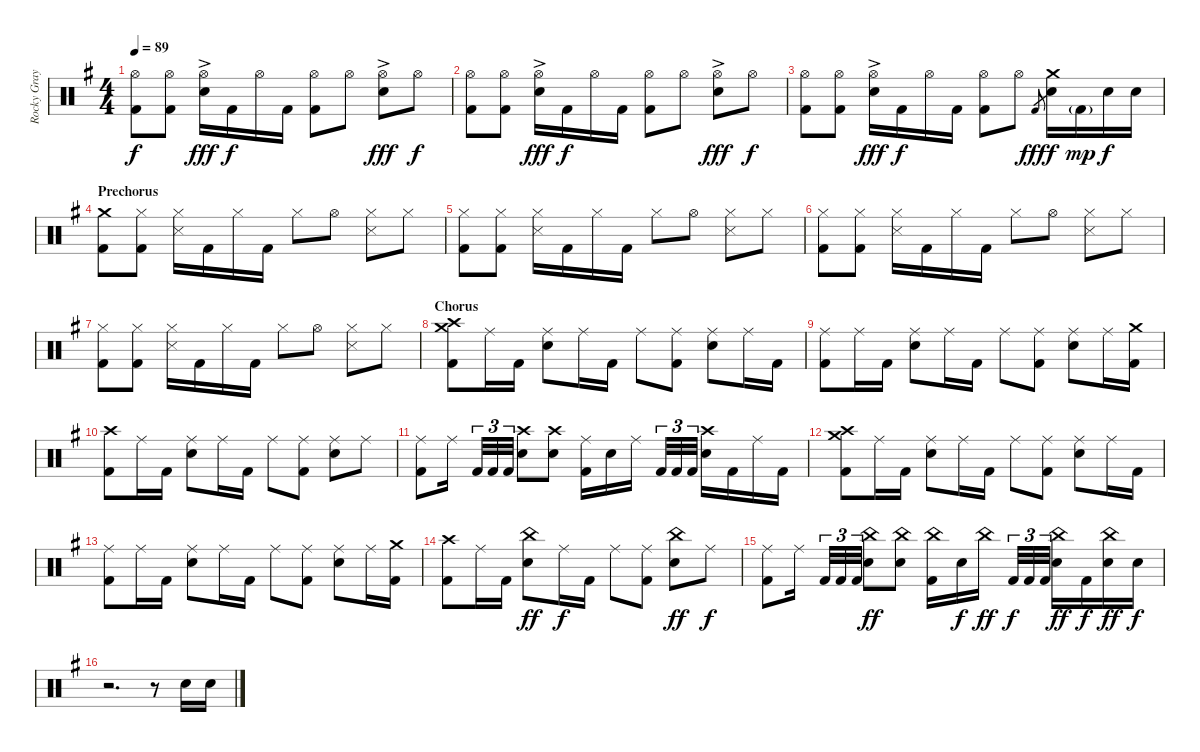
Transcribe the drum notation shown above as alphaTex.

\track ("Rocky Gray" "Rocky Gray") {instrument percussion}
\staff {score}
\articulation defaults
\ts (4 4)
\tempo 89
\clef neutral
\ks g
("Hi-Hat (open)" "Kick (hit) 2").8{dy f} ("Hi-Hat (open)" "Kick (hit) 2").8 ("Hi-Hat (open)" "Snare (hit) 2"{ac}).16{dy fff} "Kick (hit) 2".16{dy f} "Hi-Hat (open)".16 "Kick (hit) 2".16 ("Hi-Hat (open)" "Kick (hit) 2").8 "Hi-Hat (open)".8 ("Hi-Hat (open)" "Snare (hit) 2"{ac}).8{dy fff} "Hi-Hat (open)".8{dy f} |
("Hi-Hat (open)" "Kick (hit) 2").8 ("Hi-Hat (open)" "Kick (hit) 2").8 ("Hi-Hat (open)" "Snare (hit) 2"{ac}).16{dy fff} "Kick (hit) 2".16{dy f} "Hi-Hat (open)".16 "Kick (hit) 2".16 ("Hi-Hat (open)" "Kick (hit) 2").8 "Hi-Hat (open)".8 ("Hi-Hat (open)" "Snare (hit) 2"{ac}).8{dy fff} "Hi-Hat (open)".8{dy f} |
("Hi-Hat (open)" "Kick (hit) 2").8 ("Hi-Hat (open)" "Kick (hit) 2").8 ("Hi-Hat (open)" "Snare (hit) 2"{ac}).16{dy fff} "Kick (hit) 2".16{dy f} "Hi-Hat (open)".16 "Kick (hit) 2".16 ("Hi-Hat (open)" "Kick (hit) 2").8 "Hi-Hat (open)".8 "Kick (hit) 2".8{gr dy fff} ("Crash medium (hit)" "Snare (hit) 2").16{dy f} "Kick (hit) 2"{g}.16{dy mp} "Snare (hit) 2".16{dy f} "Snare (hit) 2".16 |
\section ("" "Prechorus")
("Crash medium (hit)" "Kick (hit) 2").8 ("Hi-Hat (closed)" "Kick (hit) 2").8 ("Hi-Hat (closed)" "Snare (side stick) 3").16 "Kick (hit) 2".16 "Hi-Hat (closed)".16 "Kick (hit) 2".16 "Hi-Hat (closed)".8 "Hi-Hat (open)".8 ("Hi-Hat (closed)" "Snare (side stick) 3").8 "Hi-Hat (closed)".8 |
("Hi-Hat (closed)" "Kick (hit) 2").8 ("Hi-Hat (closed)" "Kick (hit) 2").8 ("Hi-Hat (closed)" "Snare (side stick) 3").16 "Kick (hit) 2".16 "Hi-Hat (closed)".16 "Kick (hit) 2".16 "Hi-Hat (closed)".8 "Hi-Hat (open)".8 ("Hi-Hat (closed)" "Snare (side stick) 3").8 "Hi-Hat (closed)".8 |
("Hi-Hat (closed)" "Kick (hit) 2").8 ("Hi-Hat (closed)" "Kick (hit) 2").8 ("Hi-Hat (closed)" "Snare (side stick) 3").16 "Kick (hit) 2".16 "Hi-Hat (closed)".16 "Kick (hit) 2".16 "Hi-Hat (closed)".8 "Hi-Hat (open)".8 ("Hi-Hat (closed)" "Snare (side stick) 3").8 "Hi-Hat (closed)".8 |
("Hi-Hat (closed)" "Kick (hit) 2").8 ("Hi-Hat (closed)" "Kick (hit) 2").8 ("Hi-Hat (closed)" "Snare (side stick) 3").16 "Kick (hit) 2".16 "Hi-Hat (closed)".16 "Kick (hit) 2".16 "Hi-Hat (closed)".8 "Hi-Hat (open)".8 ("Hi-Hat (closed)" "Snare (side stick) 3").8 "Hi-Hat (closed)".8 |
\section ("" "Chorus")
("Crash high (hit)" "Crash medium (hit)" "Kick (hit) 2").8 "Ride (middle)".16 "Kick (hit) 2".16 ("Ride (middle)" "Snare (hit) 2").8 "Ride (middle)".16 "Kick (hit) 2".16 "Ride (middle)".8 ("Ride (middle)" "Kick (hit) 2").8 ("Ride (middle)" "Snare (hit) 2").8 "Ride (middle)".16 "Kick (hit) 2".16 |
("Ride (middle)" "Kick (hit) 2").8 "Ride (middle)".16 "Kick (hit) 2".16 ("Ride (middle)" "Snare (hit) 2").8 "Ride (middle)".16 "Kick (hit) 2".16 "Ride (middle)".8 ("Ride (middle)" "Kick (hit) 2").8 ("Ride (middle)" "Snare (hit) 2").8 "Ride (middle)".16 ("Crash medium (hit)" "Kick (hit) 2").16 |
("Crash high (hit)" "Kick (hit) 2").8 "Ride (middle)".16 "Kick (hit) 2".16 ("Ride (middle)" "Snare (hit) 2").8 "Ride (middle)".16 "Kick (hit) 2".16 "Ride (middle)".8 ("Ride (middle)" "Kick (hit) 2").8 ("Ride (middle)" "Snare (hit) 2").8 "Ride (middle)".8 |
("Ride (middle)" "Kick (hit) 2").8 "Ride (middle)".16 "Kick (hit) 2".32{tu (3 2)} "Kick (hit) 2".32{tu (3 2)} "Kick (hit) 2".32{tu (3 2)} ("Crash high (hit)" "Snare (hit) 2").8 ("Crash high (hit)" "Snare (hit) 2").8 ("Ride (middle)" "Kick (hit) 2").16 "Snare (hit) 2".16 "Ride (middle)".16 "Kick (hit) 2".32{tu (3 2)} "Kick (hit) 2".32{tu (3 2)} "Kick (hit) 2".32{tu (3 2)} ("Crash high (hit)" "Snare (hit) 2").16 "Kick (hit) 2".16 "Ride (middle)".16 "Kick (hit) 2".16 |
("Crash high (hit)" "Crash medium (hit)" "Kick (hit) 2").8 "Ride (middle)".16 "Kick (hit) 2".16 ("Ride (middle)" "Snare (hit) 2").8 "Ride (middle)".16 "Kick (hit) 2".16 "Ride (middle)".8 ("Ride (middle)" "Kick (hit) 2").8 ("Ride (middle)" "Snare (hit) 2").8 "Ride (middle)".16 "Kick (hit) 2".16 |
("Ride (middle)" "Kick (hit) 2").8 "Ride (middle)".16 "Kick (hit) 2".16 ("Ride (middle)" "Snare (hit) 2").8 "Ride (middle)".16 "Kick (hit) 2".16 "Ride (middle)".8 ("Ride (middle)" "Kick (hit) 2").8 ("Ride (middle)" "Snare (hit) 2").8 "Ride (middle)".16 ("Crash medium (hit)" "Kick (hit) 2").16 |
("Crash high (hit)" "Kick (hit) 2").8 "Ride (middle)".16 "Kick (hit) 2".16 ("China (hit)" "Snare (hit) 2").8{dy ff} "Ride (middle)".16{dy f} "Kick (hit) 2".16 "Ride (middle)".8 ("Ride (middle)" "Kick (hit) 2").8 ("China (hit)" "Snare (hit) 2").8{dy ff} "Ride (middle)".8{dy f} |
("Ride (middle)" "Kick (hit) 2").8 "Ride (middle)".16 "Kick (hit) 2".32{tu (3 2)} "Kick (hit) 2".32{tu (3 2)} "Kick (hit) 2".32{tu (3 2)} ("China (hit)" "Snare (hit) 2").8{dy ff} ("China (hit)" "Snare (hit) 2").8 ("China (hit)" "Kick (hit) 2").16 "Snare (hit) 2".16{dy f} "China (hit)".16{dy ff} "Kick (hit) 2".32{tu (3 2) dy f} "Kick (hit) 2".32{tu (3 2)} "Kick (hit) 2".32{tu (3 2)} ("China (hit)" "Snare (hit) 2").16{dy ff} "Kick (hit) 2".16{dy f} ("China (hit)" "Snare (hit) 2").16{dy ff} "Snare (hit) 2".16{dy f} |
r.2{d} r.8 "Snare (hit) 2".16 "Snare (hit) 2".16
